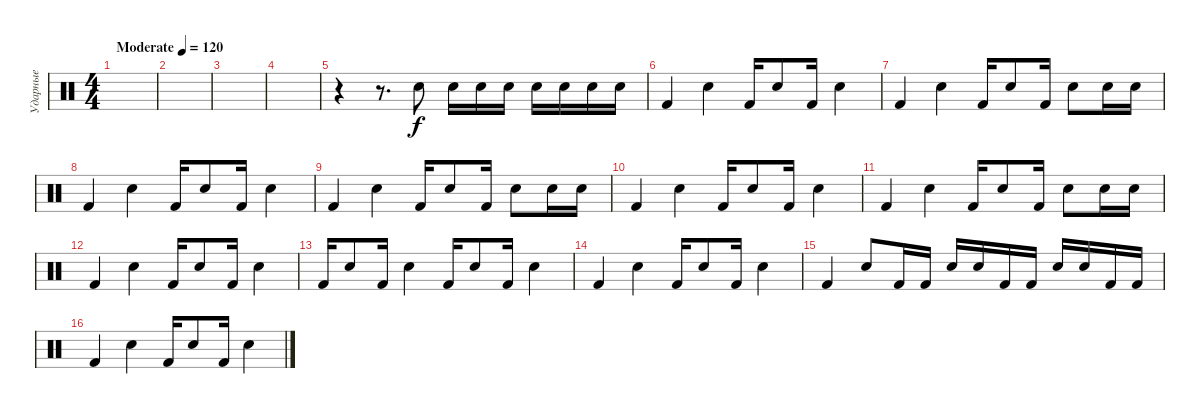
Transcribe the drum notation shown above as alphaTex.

\track ("Ударные" "Ударные") {instrument percussion}
\staff {score}
\articulation defaults
\ts (4 4)
\tempo (120 "Moderate")
\clef neutral
\ks c
|
|
|
|
r.4 r.8{d} "Snare (hit) 2".8 "Snare (hit) 2".16 "Snare (hit) 2".16 "Snare (hit) 2".16 "Snare (hit) 2".16 "Snare (hit) 2".16 "Snare (hit) 2".16 "Snare (hit) 2".16 |
"Kick (hit) 2".4 "Snare (hit) 2".4 "Kick (hit) 2".16 "Snare (hit) 2".8 "Kick (hit) 2".16 "Snare (hit) 2".4 |
"Kick (hit) 2".4 "Snare (hit) 2".4 "Kick (hit) 2".16 "Snare (hit) 2".8 "Kick (hit) 2".16 "Snare (hit) 2".8 "Snare (hit) 2".16 "Snare (hit) 2".16 |
"Kick (hit) 2".4 "Snare (hit) 2".4 "Kick (hit) 2".16 "Snare (hit) 2".8 "Kick (hit) 2".16 "Snare (hit) 2".4 |
"Kick (hit) 2".4 "Snare (hit) 2".4 "Kick (hit) 2".16 "Snare (hit) 2".8 "Kick (hit) 2".16 "Snare (hit) 2".8 "Snare (hit) 2".16 "Snare (hit) 2".16 |
"Kick (hit) 2".4 "Snare (hit) 2".4 "Kick (hit) 2".16 "Snare (hit) 2".8 "Kick (hit) 2".16 "Snare (hit) 2".4 |
"Kick (hit) 2".4 "Snare (hit) 2".4 "Kick (hit) 2".16 "Snare (hit) 2".8 "Kick (hit) 2".16 "Snare (hit) 2".8 "Snare (hit) 2".16 "Snare (hit) 2".16 |
"Kick (hit) 2".4 "Snare (hit) 2".4 "Kick (hit) 2".16 "Snare (hit) 2".8 "Kick (hit) 2".16 "Snare (hit) 2".4 |
"Kick (hit) 2".16 "Snare (hit) 2".8 "Kick (hit) 2".16 "Snare (hit) 2".4 "Kick (hit) 2".16 "Snare (hit) 2".8 "Kick (hit) 2".16 "Snare (hit) 2".4 |
"Kick (hit) 2".4 "Snare (hit) 2".4 "Kick (hit) 2".16 "Snare (hit) 2".8 "Kick (hit) 2".16 "Snare (hit) 2".4 |
"Kick (hit) 2".4 "Snare (hit) 2".8 "Kick (hit) 2".16 "Kick (hit) 2".16 "Snare (hit) 2".16 "Snare (hit) 2".16 "Kick (hit) 2".16 "Kick (hit) 2".16 "Snare (hit) 2".16 "Snare (hit) 2".16 "Kick (hit) 2".16 "Kick (hit) 2".16 |
"Kick (hit) 2".4 "Snare (hit) 2".4 "Kick (hit) 2".16 "Snare (hit) 2".8 "Kick (hit) 2".16 "Snare (hit) 2".4
